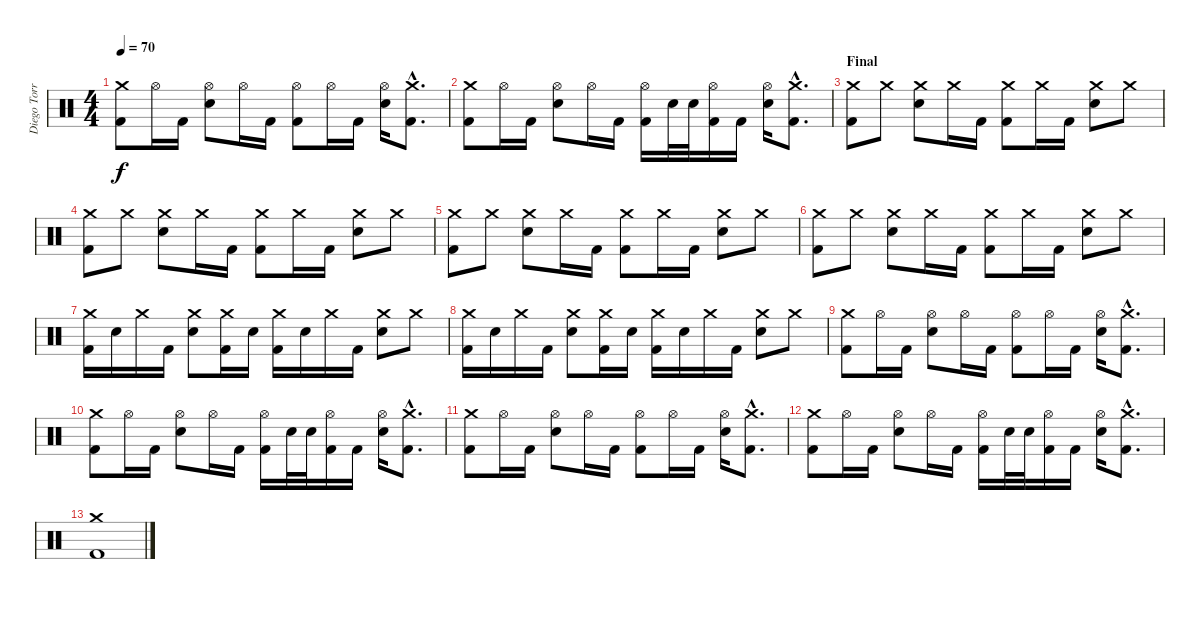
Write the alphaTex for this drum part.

\track ("Diego Torres [Bateria]" "Diego Torr") {instrument percussion}
\staff {score}
\articulation defaults
\ts (4 4)
\tempo 70
\clef neutral
\ks c
("Crash medium (hit)" "Kick (hit) 2").8{dy f} "Hi-Hat (open)".16 "Kick (hit) 2".16 ("Hi-Hat (open)" "Electric Snare (hit)").8 "Hi-Hat (open)".16 "Kick (hit) 2".16 ("Hi-Hat (open)" "Kick (hit) 2").8 "Hi-Hat (open)".16 "Kick (hit) 2".16 ("Hi-Hat (open)" "Electric Snare (hit)").16 ("Crash medium (hit)"{hac} "Kick (hit) 2"{hac}).8{d} |
("Crash medium (hit)" "Kick (hit) 2").8 "Hi-Hat (open)".16 "Kick (hit) 2".16 ("Hi-Hat (open)" "Electric Snare (hit)").8 "Hi-Hat (open)".16 "Kick (hit) 2".16 ("Hi-Hat (open)" "Kick (hit) 2").16 "Electric Snare (hit)".32 "Electric Snare (hit)".32 ("Hi-Hat (open)" "Kick (hit) 2").16 "Kick (hit) 2".16 ("Hi-Hat (open)" "Electric Snare (hit)").16 ("Crash medium (hit)"{hac} "Kick (hit) 2"{hac}).8{d} |
\section ("" "Final")
("Crash medium (hit)" "Kick (hit) 2").8 "Crash medium (hit)".8 ("Crash medium (hit)" "Electric Snare (hit)").8 "Crash medium (hit)".16 "Kick (hit) 2".16 ("Crash medium (hit)" "Kick (hit) 2").8 "Crash medium (hit)".16 "Kick (hit) 2".16 ("Crash medium (hit)" "Electric Snare (hit)").8 "Crash medium (hit)".8 |
("Crash medium (hit)" "Kick (hit) 2").8 "Crash medium (hit)".8 ("Crash medium (hit)" "Electric Snare (hit)").8 "Crash medium (hit)".16 "Kick (hit) 2".16 ("Crash medium (hit)" "Kick (hit) 2").8 "Crash medium (hit)".16 "Kick (hit) 2".16 ("Crash medium (hit)" "Electric Snare (hit)").8 "Crash medium (hit)".8 |
("Crash medium (hit)" "Kick (hit) 2").8 "Crash medium (hit)".8 ("Crash medium (hit)" "Electric Snare (hit)").8 "Crash medium (hit)".16 "Kick (hit) 2".16 ("Crash medium (hit)" "Kick (hit) 2").8 "Crash medium (hit)".16 "Kick (hit) 2".16 ("Crash medium (hit)" "Electric Snare (hit)").8 "Crash medium (hit)".8 |
("Crash medium (hit)" "Kick (hit) 2").8 "Crash medium (hit)".8 ("Crash medium (hit)" "Electric Snare (hit)").8 "Crash medium (hit)".16 "Kick (hit) 2".16 ("Crash medium (hit)" "Kick (hit) 2").8 "Crash medium (hit)".16 "Kick (hit) 2".16 ("Crash medium (hit)" "Electric Snare (hit)").8 "Crash medium (hit)".8 |
("Crash medium (hit)" "Kick (hit) 2").16 "Electric Snare (hit)".16 "Crash medium (hit)".16 "Kick (hit) 2".16 ("Crash medium (hit)" "Electric Snare (hit)").8 ("Crash medium (hit)" "Kick (hit) 2").16 "Electric Snare (hit)".16 ("Crash medium (hit)" "Kick (hit) 2").16 "Electric Snare (hit)".16 "Crash medium (hit)".16 "Kick (hit) 2".16 ("Crash medium (hit)" "Electric Snare (hit)").8 "Crash medium (hit)".8 |
("Crash medium (hit)" "Kick (hit) 2").16 "Electric Snare (hit)".16 "Crash medium (hit)".16 "Kick (hit) 2".16 ("Crash medium (hit)" "Electric Snare (hit)").8 ("Crash medium (hit)" "Kick (hit) 2").16 "Electric Snare (hit)".16 ("Crash medium (hit)" "Kick (hit) 2").16 "Electric Snare (hit)".16 "Crash medium (hit)".16 "Kick (hit) 2".16 ("Crash medium (hit)" "Electric Snare (hit)").8 "Crash medium (hit)".8 |
("Crash medium (hit)" "Kick (hit) 2").8 "Hi-Hat (open)".16 "Kick (hit) 2".16 ("Hi-Hat (open)" "Electric Snare (hit)").8 "Hi-Hat (open)".16 "Kick (hit) 2".16 ("Hi-Hat (open)" "Kick (hit) 2").8 "Hi-Hat (open)".16 "Kick (hit) 2".16 ("Hi-Hat (open)" "Electric Snare (hit)").16 ("Crash medium (hit)"{hac} "Kick (hit) 2"{hac}).8{d} |
("Crash medium (hit)" "Kick (hit) 2").8 "Hi-Hat (open)".16 "Kick (hit) 2".16 ("Hi-Hat (open)" "Electric Snare (hit)").8 "Hi-Hat (open)".16 "Kick (hit) 2".16 ("Hi-Hat (open)" "Kick (hit) 2").16 "Electric Snare (hit)".32 "Electric Snare (hit)".32 ("Hi-Hat (open)" "Kick (hit) 2").16 "Kick (hit) 2".16 ("Hi-Hat (open)" "Electric Snare (hit)").16 ("Crash medium (hit)"{hac} "Kick (hit) 2"{hac}).8{d} |
("Crash medium (hit)" "Kick (hit) 2").8 "Hi-Hat (open)".16 "Kick (hit) 2".16 ("Hi-Hat (open)" "Electric Snare (hit)").8 "Hi-Hat (open)".16 "Kick (hit) 2".16 ("Hi-Hat (open)" "Kick (hit) 2").8 "Hi-Hat (open)".16 "Kick (hit) 2".16 ("Hi-Hat (open)" "Electric Snare (hit)").16 ("Crash medium (hit)"{hac} "Kick (hit) 2"{hac}).8{d} |
("Crash medium (hit)" "Kick (hit) 2").8 "Hi-Hat (open)".16 "Kick (hit) 2".16 ("Hi-Hat (open)" "Electric Snare (hit)").8 "Hi-Hat (open)".16 "Kick (hit) 2".16 ("Hi-Hat (open)" "Kick (hit) 2").16 "Electric Snare (hit)".32 "Electric Snare (hit)".32 ("Hi-Hat (open)" "Kick (hit) 2").16 "Kick (hit) 2".16 ("Hi-Hat (open)" "Electric Snare (hit)").16 ("Crash medium (hit)"{hac} "Kick (hit) 2"{hac}).8{d} |
("Crash medium (hit)" "Kick (hit) 2").1
